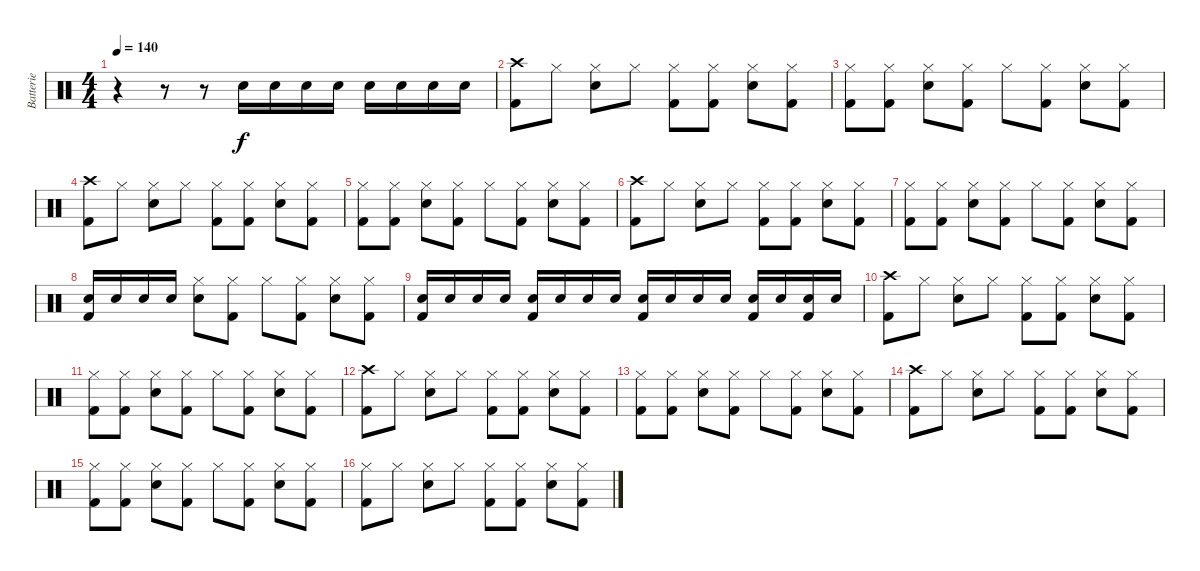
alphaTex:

\track ("Batterie" "Batterie") {instrument percussion}
\staff {score}
\articulation defaults
\ts (4 4)
\tempo 140
\clef neutral
\ks c
r.4{dy f} r.8 r.8 "Snare (hit) 2".16 "Snare (hit) 2".16 "Snare (hit) 2".16 "Snare (hit) 2".16 "Snare (hit) 2".16 "Snare (hit) 2".16 "Snare (hit) 2".16 "Snare (hit) 2".16 |
("Crash high (hit)" "Kick (hit) 2").8 "Hi-Hat (closed)".8 ("Hi-Hat (closed)" "Snare (hit) 2").8 "Hi-Hat (closed)".8 ("Hi-Hat (closed)" "Kick (hit) 2").8 ("Hi-Hat (closed)" "Kick (hit) 2").8 ("Hi-Hat (closed)" "Snare (hit) 2").8 ("Hi-Hat (closed)" "Kick (hit) 2").8 |
("Hi-Hat (closed)" "Kick (hit) 2").8 ("Hi-Hat (closed)" "Kick (hit) 2").8 ("Hi-Hat (closed)" "Snare (hit) 2").8 ("Hi-Hat (closed)" "Kick (hit) 2").8 "Hi-Hat (closed)".8 ("Hi-Hat (closed)" "Kick (hit) 2").8 ("Hi-Hat (closed)" "Snare (hit) 2").8 ("Hi-Hat (closed)" "Kick (hit) 2").8 |
("Crash high (hit)" "Kick (hit) 2").8 "Hi-Hat (closed)".8 ("Hi-Hat (closed)" "Snare (hit) 2").8 "Hi-Hat (closed)".8 ("Hi-Hat (closed)" "Kick (hit) 2").8 ("Hi-Hat (closed)" "Kick (hit) 2").8 ("Hi-Hat (closed)" "Snare (hit) 2").8 ("Hi-Hat (closed)" "Kick (hit) 2").8 |
("Hi-Hat (closed)" "Kick (hit) 2").8 ("Hi-Hat (closed)" "Kick (hit) 2").8 ("Hi-Hat (closed)" "Snare (hit) 2").8 ("Hi-Hat (closed)" "Kick (hit) 2").8 "Hi-Hat (closed)".8 ("Hi-Hat (closed)" "Kick (hit) 2").8 ("Hi-Hat (closed)" "Snare (hit) 2").8 ("Hi-Hat (closed)" "Kick (hit) 2").8 |
("Crash high (hit)" "Kick (hit) 2").8 "Hi-Hat (closed)".8 ("Hi-Hat (closed)" "Snare (hit) 2").8 "Hi-Hat (closed)".8 ("Hi-Hat (closed)" "Kick (hit) 2").8 ("Hi-Hat (closed)" "Kick (hit) 2").8 ("Hi-Hat (closed)" "Snare (hit) 2").8 ("Hi-Hat (closed)" "Kick (hit) 2").8 |
("Hi-Hat (closed)" "Kick (hit) 2").8 ("Hi-Hat (closed)" "Kick (hit) 2").8 ("Hi-Hat (closed)" "Snare (hit) 2").8 ("Hi-Hat (closed)" "Kick (hit) 2").8 "Hi-Hat (closed)".8 ("Hi-Hat (closed)" "Kick (hit) 2").8 ("Hi-Hat (closed)" "Snare (hit) 2").8 ("Hi-Hat (closed)" "Kick (hit) 2").8 |
("Snare (hit) 2" "Kick (hit) 2").16 "Snare (hit) 2".16 "Snare (hit) 2".16 "Snare (hit) 2".16 ("Hi-Hat (closed)" "Snare (hit) 2").8 ("Hi-Hat (closed)" "Kick (hit) 2").8 "Hi-Hat (closed)".8 ("Hi-Hat (closed)" "Kick (hit) 2").8 ("Hi-Hat (closed)" "Snare (hit) 2").8 ("Hi-Hat (closed)" "Kick (hit) 2").8 |
("Snare (hit) 2" "Kick (hit) 2").16 "Snare (hit) 2".16 "Snare (hit) 2".16 "Snare (hit) 2".16 ("Snare (hit) 2" "Kick (hit) 2").16 "Snare (hit) 2".16 "Snare (hit) 2".16 "Snare (hit) 2".16 ("Snare (hit) 2" "Kick (hit) 2").16 "Snare (hit) 2".16 "Snare (hit) 2".16 "Snare (hit) 2".16 ("Snare (hit) 2" "Kick (hit) 2").16 "Snare (hit) 2".16 ("Snare (hit) 2" "Kick (hit) 2").16 "Snare (hit) 2".16 |
("Crash high (hit)" "Kick (hit) 2").8 "Hi-Hat (closed)".8 ("Hi-Hat (closed)" "Snare (hit) 2").8 "Hi-Hat (closed)".8 ("Hi-Hat (closed)" "Kick (hit) 2").8 ("Hi-Hat (closed)" "Kick (hit) 2").8 ("Hi-Hat (closed)" "Snare (hit) 2").8 ("Hi-Hat (closed)" "Kick (hit) 2").8 |
("Hi-Hat (closed)" "Kick (hit) 2").8 ("Hi-Hat (closed)" "Kick (hit) 2").8 ("Hi-Hat (closed)" "Snare (hit) 2").8 ("Hi-Hat (closed)" "Kick (hit) 2").8 "Hi-Hat (closed)".8 ("Hi-Hat (closed)" "Kick (hit) 2").8 ("Hi-Hat (closed)" "Snare (hit) 2").8 ("Hi-Hat (closed)" "Kick (hit) 2").8 |
("Crash high (hit)" "Kick (hit) 2").8 "Hi-Hat (closed)".8 ("Hi-Hat (closed)" "Snare (hit) 2").8 "Hi-Hat (closed)".8 ("Hi-Hat (closed)" "Kick (hit) 2").8 ("Hi-Hat (closed)" "Kick (hit) 2").8 ("Hi-Hat (closed)" "Snare (hit) 2").8 ("Hi-Hat (closed)" "Kick (hit) 2").8 |
("Hi-Hat (closed)" "Kick (hit) 2").8 ("Hi-Hat (closed)" "Kick (hit) 2").8 ("Hi-Hat (closed)" "Snare (hit) 2").8 ("Hi-Hat (closed)" "Kick (hit) 2").8 "Hi-Hat (closed)".8 ("Hi-Hat (closed)" "Kick (hit) 2").8 ("Hi-Hat (closed)" "Snare (hit) 2").8 ("Hi-Hat (closed)" "Kick (hit) 2").8 |
("Crash high (hit)" "Kick (hit) 2").8 "Hi-Hat (closed)".8 ("Hi-Hat (closed)" "Snare (hit) 2").8 "Hi-Hat (closed)".8 ("Hi-Hat (closed)" "Kick (hit) 2").8 ("Hi-Hat (closed)" "Kick (hit) 2").8 ("Hi-Hat (closed)" "Snare (hit) 2").8 ("Hi-Hat (closed)" "Kick (hit) 2").8 |
("Hi-Hat (closed)" "Kick (hit) 2").8 ("Hi-Hat (closed)" "Kick (hit) 2").8 ("Hi-Hat (closed)" "Snare (hit) 2").8 ("Hi-Hat (closed)" "Kick (hit) 2").8 "Hi-Hat (closed)".8 ("Hi-Hat (closed)" "Kick (hit) 2").8 ("Hi-Hat (closed)" "Snare (hit) 2").8 ("Hi-Hat (closed)" "Kick (hit) 2").8 |
("Hi-Hat (closed)" "Kick (hit) 2").8 "Hi-Hat (closed)".8 ("Hi-Hat (closed)" "Snare (hit) 2").8 "Hi-Hat (closed)".8 ("Hi-Hat (closed)" "Kick (hit) 2").8 ("Hi-Hat (closed)" "Kick (hit) 2").8 ("Hi-Hat (closed)" "Snare (hit) 2").8 ("Hi-Hat (closed)" "Kick (hit) 2").8
